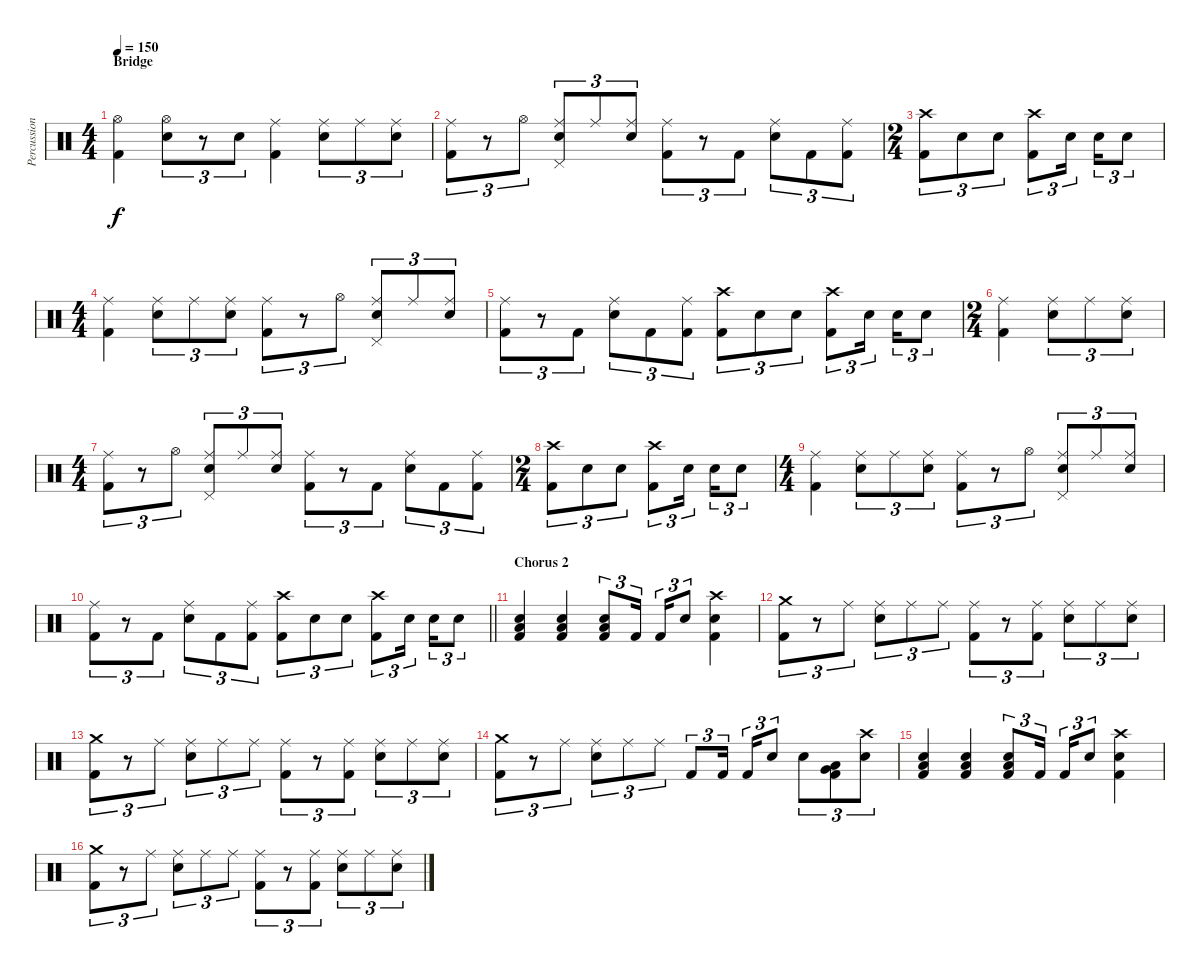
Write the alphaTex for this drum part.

\track ("Percussion" "Percussion") {instrument percussion}
\staff {score}
\articulation defaults
\ts (4 4)
\section ("" "Bridge")
\tempo 150
\clef neutral
\ks c
("Hi-Hat (open)" "Kick (hit) 2").4{dy f} ("Hi-Hat (open)" "Electric Snare (hit)").8{tu (3 2)} r.8{tu (3 2)} "Electric Snare (hit)".8{tu (3 2)} ("Ride (middle)" "Kick (hit) 2").4 ("Ride (middle)" "Electric Snare (hit)").8{tu (3 2)} "Ride (middle)".8{tu (3 2)} ("Ride (middle)" "Electric Snare (hit)").8{tu (3 2)} |
("Ride (middle)" "Kick (hit) 2").8{tu (3 2)} r.8{tu (3 2)} "Hi-Hat (open)".8{tu (3 2)} ("Pedal Hi-Hat (hit)" "Ride (middle)" "Electric Snare (hit)").8{tu (3 2)} "Ride (middle)".8{tu (3 2)} ("Ride (middle)" "Electric Snare (hit)").8{tu (3 2)} ("Ride (middle)" "Kick (hit) 2").8{tu (3 2)} r.8{tu (3 2)} "Kick (hit) 2".8{tu (3 2)} ("Ride (middle)" "Electric Snare (hit)").8{tu (3 2)} "Kick (hit) 2".8{tu (3 2)} ("Ride (middle)" "Kick (hit) 2").8{tu (3 2)} |
\ts (2 4)
("Crash high (hit)" "Kick (hit) 2").8{tu (3 2)} "Electric Snare (hit)".8{tu (3 2)} "Electric Snare (hit)".8{tu (3 2)} ("Crash high (hit)" "Kick (hit) 2").8{tu (3 2)} "Electric Snare (hit)".16{tu (3 2) beam splitsecondary} "Electric Snare (hit)".16{tu (3 2)} "Electric Snare (hit)".8{tu (3 2)} |
\ts (4 4)
("Ride (middle)" "Kick (hit) 2").4 ("Ride (middle)" "Electric Snare (hit)").8{tu (3 2)} "Ride (middle)".8{tu (3 2)} ("Ride (middle)" "Electric Snare (hit)").8{tu (3 2)} ("Ride (middle)" "Kick (hit) 2").8{tu (3 2)} r.8{tu (3 2)} "Hi-Hat (open)".8{tu (3 2)} ("Pedal Hi-Hat (hit)" "Ride (middle)" "Electric Snare (hit)").8{tu (3 2)} "Ride (middle)".8{tu (3 2)} ("Ride (middle)" "Electric Snare (hit)").8{tu (3 2)} |
("Ride (middle)" "Kick (hit) 2").8{tu (3 2)} r.8{tu (3 2)} "Kick (hit) 2".8{tu (3 2)} ("Ride (middle)" "Electric Snare (hit)").8{tu (3 2)} "Kick (hit) 2".8{tu (3 2)} ("Ride (middle)" "Kick (hit) 2").8{tu (3 2)} ("Crash high (hit)" "Kick (hit) 2").8{tu (3 2)} "Electric Snare (hit)".8{tu (3 2)} "Electric Snare (hit)".8{tu (3 2)} ("Crash high (hit)" "Kick (hit) 2").8{tu (3 2)} "Electric Snare (hit)".16{tu (3 2) beam splitsecondary} "Electric Snare (hit)".16{tu (3 2)} "Electric Snare (hit)".8{tu (3 2)} |
\ts (2 4)
("Ride (middle)" "Kick (hit) 2").4 ("Ride (middle)" "Electric Snare (hit)").8{tu (3 2)} "Ride (middle)".8{tu (3 2)} ("Ride (middle)" "Electric Snare (hit)").8{tu (3 2)} |
\ts (4 4)
("Ride (middle)" "Kick (hit) 2").8{tu (3 2)} r.8{tu (3 2)} "Hi-Hat (open)".8{tu (3 2)} ("Pedal Hi-Hat (hit)" "Ride (middle)" "Electric Snare (hit)").8{tu (3 2)} "Ride (middle)".8{tu (3 2)} ("Ride (middle)" "Electric Snare (hit)").8{tu (3 2)} ("Ride (middle)" "Kick (hit) 2").8{tu (3 2)} r.8{tu (3 2)} "Kick (hit) 2".8{tu (3 2)} ("Ride (middle)" "Electric Snare (hit)").8{tu (3 2)} "Kick (hit) 2".8{tu (3 2)} ("Ride (middle)" "Kick (hit) 2").8{tu (3 2)} |
\ts (2 4)
("Crash high (hit)" "Kick (hit) 2").8{tu (3 2)} "Electric Snare (hit)".8{tu (3 2)} "Electric Snare (hit)".8{tu (3 2)} ("Crash high (hit)" "Kick (hit) 2").8{tu (3 2)} "Electric Snare (hit)".16{tu (3 2) beam splitsecondary} "Electric Snare (hit)".16{tu (3 2)} "Electric Snare (hit)".8{tu (3 2)} |
\ts (4 4)
("Ride (middle)" "Kick (hit) 2").4 ("Ride (middle)" "Electric Snare (hit)").8{tu (3 2)} "Ride (middle)".8{tu (3 2)} ("Ride (middle)" "Electric Snare (hit)").8{tu (3 2)} ("Ride (middle)" "Kick (hit) 2").8{tu (3 2)} r.8{tu (3 2)} "Hi-Hat (open)".8{tu (3 2)} ("Pedal Hi-Hat (hit)" "Ride (middle)" "Electric Snare (hit)").8{tu (3 2)} "Ride (middle)".8{tu (3 2)} ("Ride (middle)" "Electric Snare (hit)").8{tu (3 2)} |
\barLineRight lightlight
("Ride (middle)" "Kick (hit) 2").8{tu (3 2)} r.8{tu (3 2)} "Kick (hit) 2".8{tu (3 2)} ("Ride (middle)" "Electric Snare (hit)").8{tu (3 2)} "Kick (hit) 2".8{tu (3 2)} ("Ride (middle)" "Kick (hit) 2").8{tu (3 2)} ("Crash high (hit)" "Kick (hit) 2").8{tu (3 2)} "Electric Snare (hit)".8{tu (3 2)} "Electric Snare (hit)".8{tu (3 2)} ("Crash high (hit)" "Kick (hit) 2").8{tu (3 2)} "Electric Snare (hit)".16{tu (3 2) beam splitsecondary} "Electric Snare (hit)".16{tu (3 2)} "Electric Snare (hit)".8{tu (3 2)} |
\section ("" "Chorus 2")
("Electric Snare (hit)" "Low Floor Tom (hit)" "Kick (hit) 2").4 ("Electric Snare (hit)" "Low Floor Tom (hit)" "Kick (hit) 2").4 ("Electric Snare (hit)" "Low Floor Tom (hit)" "Kick (hit) 2").8{tu (3 2)} "Kick (hit) 2".16{tu (3 2) beam splitsecondary} "Kick (hit) 2".16{tu (3 2)} "Electric Snare (hit)".8{tu (3 2)} ("Crash high (hit)" "Electric Snare (hit)" "Kick (hit) 2").4 |
("Crash medium (hit)" "Kick (hit) 2").8{tu (3 2)} r.8{tu (3 2)} "Ride (middle)".8{tu (3 2)} ("Ride (middle)" "Electric Snare (hit)").8{tu (3 2)} "Ride (middle)".8{tu (3 2)} "Ride (middle)".8{tu (3 2)} ("Ride (middle)" "Kick (hit) 2").8{tu (3 2)} r.8{tu (3 2)} ("Ride (middle)" "Kick (hit) 2").8{tu (3 2)} ("Ride (middle)" "Electric Snare (hit)").8{tu (3 2)} "Ride (middle)".8{tu (3 2)} ("Ride (middle)" "Electric Snare (hit)").8{tu (3 2)} |
("Crash medium (hit)" "Kick (hit) 2").8{tu (3 2)} r.8{tu (3 2)} "Ride (middle)".8{tu (3 2)} ("Ride (middle)" "Electric Snare (hit)").8{tu (3 2)} "Ride (middle)".8{tu (3 2)} "Ride (middle)".8{tu (3 2)} ("Ride (middle)" "Kick (hit) 2").8{tu (3 2)} r.8{tu (3 2)} ("Ride (middle)" "Kick (hit) 2").8{tu (3 2)} ("Ride (middle)" "Electric Snare (hit)").8{tu (3 2)} "Ride (middle)".8{tu (3 2)} ("Ride (middle)" "Electric Snare (hit)").8{tu (3 2)} |
("Crash medium (hit)" "Kick (hit) 2").8{tu (3 2)} r.8{tu (3 2)} "Ride (middle)".8{tu (3 2)} ("Ride (middle)" "Electric Snare (hit)").8{tu (3 2)} "Ride (middle)".8{tu (3 2)} "Ride (middle)".8{tu (3 2)} "Kick (hit) 2".8{tu (3 2)} "Kick (hit) 2".16{tu (3 2) beam splitsecondary} "Kick (hit) 2".16{tu (3 2)} "Electric Snare (hit)".8{tu (3 2)} "Electric Snare (hit)".8{tu (3 2)} ("Very Low Tom (hit)" "Low Floor Tom (hit)" "Kick (hit) 2").8{tu (3 2)} ("Crash high (hit)" "Electric Snare (hit)").8{tu (3 2)} |
("Electric Snare (hit)" "Low Floor Tom (hit)" "Kick (hit) 2").4 ("Electric Snare (hit)" "Low Floor Tom (hit)" "Kick (hit) 2").4 ("Electric Snare (hit)" "Low Floor Tom (hit)" "Kick (hit) 2").8{tu (3 2)} "Kick (hit) 2".16{tu (3 2) beam splitsecondary} "Kick (hit) 2".16{tu (3 2)} "Electric Snare (hit)".8{tu (3 2)} ("Crash high (hit)" "Electric Snare (hit)" "Kick (hit) 2").4 |
("Crash medium (hit)" "Kick (hit) 2").8{tu (3 2)} r.8{tu (3 2)} "Ride (middle)".8{tu (3 2)} ("Ride (middle)" "Electric Snare (hit)").8{tu (3 2)} "Ride (middle)".8{tu (3 2)} "Ride (middle)".8{tu (3 2)} ("Ride (middle)" "Kick (hit) 2").8{tu (3 2)} r.8{tu (3 2)} ("Ride (middle)" "Kick (hit) 2").8{tu (3 2)} ("Ride (middle)" "Electric Snare (hit)").8{tu (3 2)} "Ride (middle)".8{tu (3 2)} ("Ride (middle)" "Electric Snare (hit)").8{tu (3 2)}
